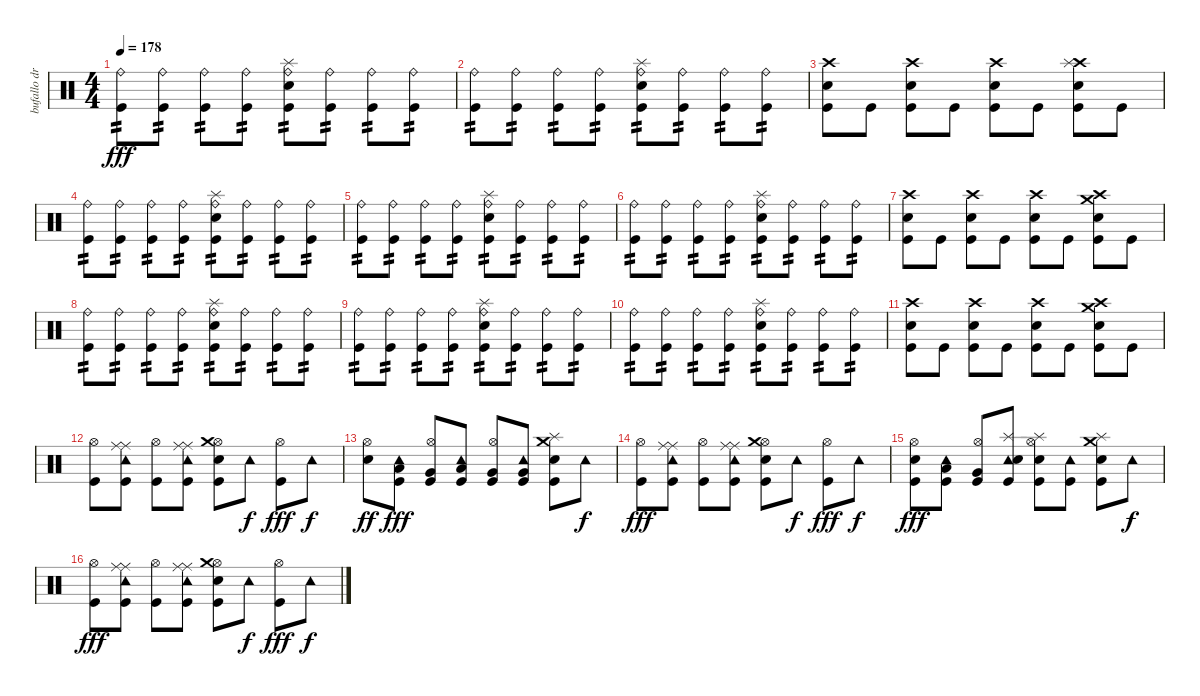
\track ("bufallo drums" "bufallo dr") {instrument percussion}
\staff {score}
\articulation defaults
\ts (4 4)
\tempo 178
\clef neutral
\ks c
("Ride (bell)" "Kick (hit)").8{tp 2 dy fff} ("Ride (bell)" "Kick (hit)").8{tp 2} ("Ride (bell)" "Kick (hit)").8{tp 2} ("Ride (bell)" "Kick (hit)").8{tp 2} ("Ride (bell)" "Splash (hit)" "Electric Snare (hit)" "Kick (hit)").8{tp 2} ("Ride (bell)" "Kick (hit)").8{tp 2} ("Ride (bell)" "Kick (hit)").8{tp 2} ("Ride (bell)" "Kick (hit)").8{tp 2} |
("Ride (bell)" "Kick (hit)").8{tp 2} ("Ride (bell)" "Kick (hit)").8{tp 2} ("Ride (bell)" "Kick (hit)").8{tp 2} ("Ride (bell)" "Kick (hit)").8{tp 2} ("Ride (bell)" "Splash (hit)" "Electric Snare (hit)" "Kick (hit)").8{tp 2} ("Ride (bell)" "Kick (hit)").8{tp 2} ("Ride (bell)" "Kick (hit)").8{tp 2} ("Ride (bell)" "Kick (hit)").8{tp 2} |
("Crash high (hit)" "Electric Snare (hit)" "Kick (hit)").8 "Kick (hit)".8 ("Crash high (hit)" "Electric Snare (hit)" "Kick (hit)").8 "Kick (hit)".8 ("Crash high (hit)" "Electric Snare (hit)" "Kick (hit)").8 "Kick (hit)".8 ("Crash high (hit)" "Splash (hit)" "Electric Snare (hit)" "Kick (hit)").8 "Kick (hit)".8 |
("Ride (bell)" "Kick (hit)").8{tp 2} ("Ride (bell)" "Kick (hit)").8{tp 2} ("Ride (bell)" "Kick (hit)").8{tp 2} ("Ride (bell)" "Kick (hit)").8{tp 2} ("Ride (bell)" "Splash (hit)" "Electric Snare (hit)" "Kick (hit)").8{tp 2} ("Ride (bell)" "Kick (hit)").8{tp 2} ("Ride (bell)" "Kick (hit)").8{tp 2} ("Ride (bell)" "Kick (hit)").8{tp 2} |
("Ride (bell)" "Kick (hit)").8{tp 2} ("Ride (bell)" "Kick (hit)").8{tp 2} ("Ride (bell)" "Kick (hit)").8{tp 2} ("Ride (bell)" "Kick (hit)").8{tp 2} ("Ride (bell)" "Splash (hit)" "Electric Snare (hit)" "Kick (hit)").8{tp 2} ("Ride (bell)" "Kick (hit)").8{tp 2} ("Ride (bell)" "Kick (hit)").8{tp 2} ("Ride (bell)" "Kick (hit)").8{tp 2} |
("Ride (bell)" "Kick (hit)").8{tp 2} ("Ride (bell)" "Kick (hit)").8{tp 2} ("Ride (bell)" "Kick (hit)").8{tp 2} ("Ride (bell)" "Kick (hit)").8{tp 2} ("Ride (bell)" "Splash (hit)" "Electric Snare (hit)" "Kick (hit)").8{tp 2} ("Ride (bell)" "Kick (hit)").8{tp 2} ("Ride (bell)" "Kick (hit)").8{tp 2} ("Ride (bell)" "Kick (hit)").8{tp 2} |
("Crash high (hit)" "Electric Snare (hit)" "Kick (hit)").8 "Kick (hit)".8 ("Crash high (hit)" "Electric Snare (hit)" "Kick (hit)").8 "Kick (hit)".8 ("Crash high (hit)" "Electric Snare (hit)" "Kick (hit)").8 "Kick (hit)".8 ("Crash high (hit)" "Crash medium (hit)" "Electric Snare (hit)" "Kick (hit)").8 "Kick (hit)".8 |
("Ride (bell)" "Kick (hit)").8{tp 2} ("Ride (bell)" "Kick (hit)").8{tp 2} ("Ride (bell)" "Kick (hit)").8{tp 2} ("Ride (bell)" "Kick (hit)").8{tp 2} ("Ride (bell)" "Splash (hit)" "Electric Snare (hit)" "Kick (hit)").8{tp 2} ("Ride (bell)" "Kick (hit)").8{tp 2} ("Ride (bell)" "Kick (hit)").8{tp 2} ("Ride (bell)" "Kick (hit)").8{tp 2} |
("Ride (bell)" "Kick (hit)").8{tp 2} ("Ride (bell)" "Kick (hit)").8{tp 2} ("Ride (bell)" "Kick (hit)").8{tp 2} ("Ride (bell)" "Kick (hit)").8{tp 2} ("Ride (bell)" "Splash (hit)" "Electric Snare (hit)" "Kick (hit)").8{tp 2} ("Ride (bell)" "Kick (hit)").8{tp 2} ("Ride (bell)" "Kick (hit)").8{tp 2} ("Ride (bell)" "Kick (hit)").8{tp 2} |
("Ride (bell)" "Kick (hit)").8{tp 2} ("Ride (bell)" "Kick (hit)").8{tp 2} ("Ride (bell)" "Kick (hit)").8{tp 2} ("Ride (bell)" "Kick (hit)").8{tp 2} ("Ride (bell)" "Splash (hit)" "Electric Snare (hit)" "Kick (hit)").8{tp 2} ("Ride (bell)" "Kick (hit)").8{tp 2} ("Ride (bell)" "Kick (hit)").8{tp 2} ("Ride (bell)" "Kick (hit)").8{tp 2} |
("Crash high (hit)" "Electric Snare (hit)" "Kick (hit)").8 "Kick (hit)".8 ("Crash high (hit)" "Electric Snare (hit)" "Kick (hit)").8 "Kick (hit)".8 ("Crash high (hit)" "Electric Snare (hit)" "Kick (hit)").8 "Kick (hit)".8 ("Crash high (hit)" "Crash medium (hit)" "Electric Snare (hit)" "Kick (hit)").8 "Kick (hit)".8 |
("Hi-Hat (open)" "Kick (hit)").8 ("Tambourine (hit)" "Ride (middle)" "Ride (middle)" "Kick (hit)").8 ("Hi-Hat (open)" "Kick (hit)").8 ("Tambourine (hit)" "Ride (middle)" "Ride (middle)" "Kick (hit)").8 ("Hi-Hat (open)" "Crash medium (hit)" "Electric Snare (hit)" "Kick (hit)").8 "Tambourine (hit)".8{dy f} ("Hi-Hat (open)" "Kick (hit)").8{dy fff} "Tambourine (hit)".8{dy f} |
("Hi-Hat (open)" "Electric Snare (hit)").8{dy ff} ("Tambourine (hit)" "Low Tom (hit)" "Kick (hit)").8{dy fff} ("Hi-Hat (open)" "Very Low Tom (hit)" "Kick (hit)").8 ("Tambourine (hit)" "Low Tom (hit)" "Kick (hit)").8 ("Hi-Hat (open)" "Very Low Tom (hit)" "Kick (hit)").8 ("Tambourine (hit)" "Very Low Tom (hit)" "Kick (hit)").8 ("Splash (hit)" "Crash medium (hit)" "Electric Snare (hit)" "Kick (hit)").8 "Tambourine (hit)".8{dy f} |
("Hi-Hat (open)" "Kick (hit)").8{dy fff} ("Tambourine (hit)" "Ride (middle)" "Ride (middle)" "Kick (hit)").8 ("Hi-Hat (open)" "Kick (hit)").8 ("Tambourine (hit)" "Ride (middle)" "Ride (middle)" "Kick (hit)").8 ("Hi-Hat (open)" "Crash medium (hit)" "Electric Snare (hit)" "Kick (hit)").8 "Tambourine (hit)".8{dy f} ("Hi-Hat (open)" "Kick (hit)").8{dy fff} "Tambourine (hit)".8{dy f} |
("Hi-Hat (open)" "Electric Snare (hit)" "Kick (hit)").8{dy fff} ("Tambourine (hit)" "Low Tom (hit)" "Kick (hit)").8 ("Hi-Hat (open)" "Very Low Tom (hit)" "Kick (hit)").8 ("Tambourine (hit)" "Splash (hit)" "Electric Snare (hit)" "Kick (hit)").8 ("Hi-Hat (open)" "Splash (hit)" "Electric Snare (hit)" "Kick (hit)").8 ("Tambourine (hit)" "Kick (hit)").8 ("Splash (hit)" "Crash medium (hit)" "Electric Snare (hit)" "Kick (hit)").8 "Tambourine (hit)".8{dy f} |
("Hi-Hat (open)" "Kick (hit)").8{dy fff} ("Tambourine (hit)" "Ride (middle)" "Ride (middle)" "Kick (hit)").8 ("Hi-Hat (open)" "Kick (hit)").8 ("Tambourine (hit)" "Ride (middle)" "Ride (middle)" "Kick (hit)").8 ("Hi-Hat (open)" "Crash medium (hit)" "Electric Snare (hit)" "Kick (hit)").8 "Tambourine (hit)".8{dy f} ("Hi-Hat (open)" "Kick (hit)").8{dy fff} "Tambourine (hit)".8{dy f}
